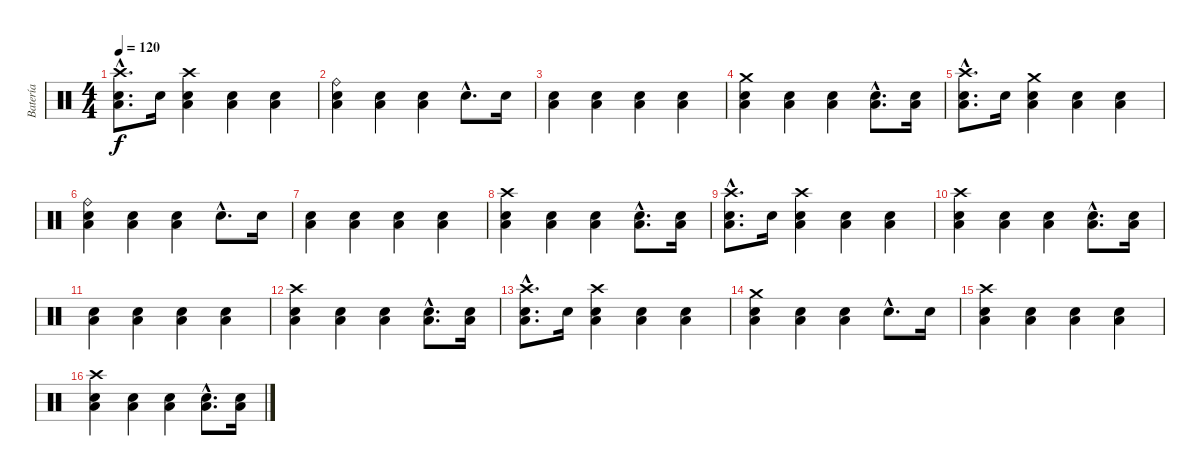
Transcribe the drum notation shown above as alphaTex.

\track ("Batería" "Batería") {instrument percussion}
\staff {score}
\articulation defaults
\ts (4 4)
\tempo 120
\clef neutral
\ks c
("Crash high (hit)"{hac} "Low Tom (hit)"{hac} "Electric Snare (hit)"{hac}).8{d dy f} "Electric Snare (hit)".16 ("Crash high (hit)" "Low Tom (hit)" "Electric Snare (hit)").4 ("Low Tom (hit)" "Electric Snare (hit)").4 ("Low Tom (hit)" "Electric Snare (hit)").4 |
("Ride (bell)" "Low Tom (hit)" "Electric Snare (hit)").4 ("Low Tom (hit)" "Electric Snare (hit)").4 ("Low Tom (hit)" "Electric Snare (hit)").4 "Electric Snare (hit)"{hac}.8{d} "Electric Snare (hit)".16 |
("Low Tom (hit)" "Electric Snare (hit)").4 ("Low Tom (hit)" "Electric Snare (hit)").4 ("Low Tom (hit)" "Electric Snare (hit)").4 ("Low Tom (hit)" "Electric Snare (hit)").4 |
("Crash medium (hit)" "Low Tom (hit)" "Electric Snare (hit)").4 ("Low Tom (hit)" "Electric Snare (hit)").4 ("Low Tom (hit)" "Electric Snare (hit)").4 ("Low Tom (hit)"{hac} "Electric Snare (hit)"{hac}).8{d} ("Low Tom (hit)" "Electric Snare (hit)").16 |
("Crash high (hit)"{hac} "Low Tom (hit)"{hac} "Electric Snare (hit)"{hac}).8{d} "Electric Snare (hit)".16 ("Crash medium (hit)" "Low Tom (hit)" "Electric Snare (hit)").4 ("Low Tom (hit)" "Electric Snare (hit)").4 ("Low Tom (hit)" "Electric Snare (hit)").4 |
("Ride (bell)" "Low Tom (hit)" "Electric Snare (hit)").4 ("Low Tom (hit)" "Electric Snare (hit)").4 ("Low Tom (hit)" "Electric Snare (hit)").4 "Electric Snare (hit)"{hac}.8{d} "Electric Snare (hit)".16 |
("Low Tom (hit)" "Electric Snare (hit)").4 ("Low Tom (hit)" "Electric Snare (hit)").4 ("Low Tom (hit)" "Electric Snare (hit)").4 ("Low Tom (hit)" "Electric Snare (hit)").4 |
("Crash high (hit)" "Low Tom (hit)" "Electric Snare (hit)").4 ("Low Tom (hit)" "Electric Snare (hit)").4 ("Low Tom (hit)" "Electric Snare (hit)").4 ("Low Tom (hit)"{hac} "Electric Snare (hit)"{hac}).8{d} ("Low Tom (hit)" "Electric Snare (hit)").16 |
("Crash high (hit)"{hac} "Low Tom (hit)"{hac} "Electric Snare (hit)"{hac}).8{d} "Electric Snare (hit)".16 ("Crash high (hit)" "Low Tom (hit)" "Electric Snare (hit)").4 ("Low Tom (hit)" "Electric Snare (hit)").4 ("Low Tom (hit)" "Electric Snare (hit)").4 |
("Crash high (hit)" "Low Tom (hit)" "Electric Snare (hit)").4 ("Low Tom (hit)" "Electric Snare (hit)").4 ("Low Tom (hit)" "Electric Snare (hit)").4 ("Low Tom (hit)"{hac} "Electric Snare (hit)"{hac}).8{d} ("Low Tom (hit)" "Electric Snare (hit)").16 |
("Low Tom (hit)" "Electric Snare (hit)").4 ("Low Tom (hit)" "Electric Snare (hit)").4 ("Low Tom (hit)" "Electric Snare (hit)").4 ("Low Tom (hit)" "Electric Snare (hit)").4 |
("Crash high (hit)" "Low Tom (hit)" "Electric Snare (hit)").4 ("Low Tom (hit)" "Electric Snare (hit)").4 ("Low Tom (hit)" "Electric Snare (hit)").4 ("Low Tom (hit)"{hac} "Electric Snare (hit)"{hac}).8{d} ("Low Tom (hit)" "Electric Snare (hit)").16 |
("Crash high (hit)"{hac} "Low Tom (hit)"{hac} "Electric Snare (hit)"{hac}).8{d} "Electric Snare (hit)".16 ("Crash high (hit)" "Low Tom (hit)" "Electric Snare (hit)").4 ("Low Tom (hit)" "Electric Snare (hit)").4 ("Low Tom (hit)" "Electric Snare (hit)").4 |
("Crash medium (hit)" "Low Tom (hit)" "Electric Snare (hit)").4 ("Low Tom (hit)" "Electric Snare (hit)").4 ("Low Tom (hit)" "Electric Snare (hit)").4 "Electric Snare (hit)"{hac}.8{d} "Electric Snare (hit)".16 |
("Crash high (hit)" "Low Tom (hit)" "Electric Snare (hit)").4 ("Low Tom (hit)" "Electric Snare (hit)").4 ("Low Tom (hit)" "Electric Snare (hit)").4 ("Low Tom (hit)" "Electric Snare (hit)").4 |
("Crash high (hit)" "Low Tom (hit)" "Electric Snare (hit)").4 ("Low Tom (hit)" "Electric Snare (hit)").4 ("Low Tom (hit)" "Electric Snare (hit)").4 ("Low Tom (hit)"{hac} "Electric Snare (hit)"{hac}).8{d} ("Low Tom (hit)" "Electric Snare (hit)").16
